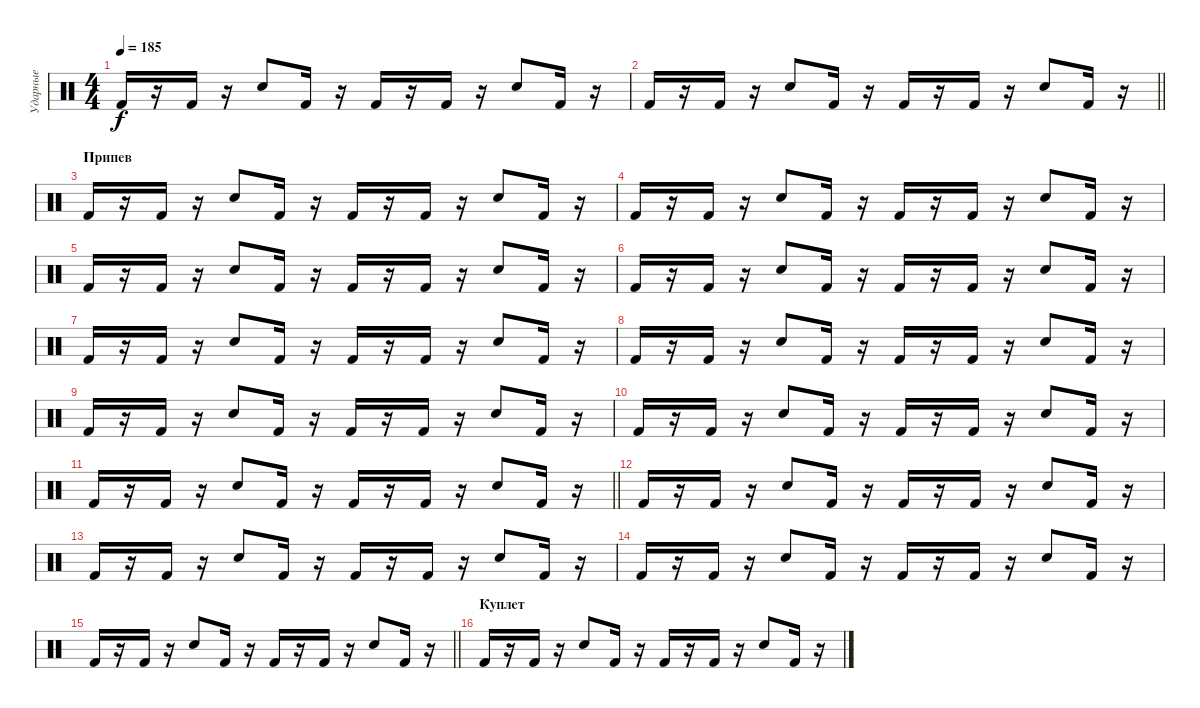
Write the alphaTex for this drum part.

\track ("Ударные" "Ударные") {instrument percussion}
\staff {score}
\articulation defaults
\ts (4 4)
\tempo 185
\clef neutral
\ks c "Kick (hit) 2".16{dy f}
r.16 "Kick (hit) 2".16 r.16 "Electric Snare (hit)".8 "Kick (hit) 2".16 r.16 "Kick (hit) 2".16 r.16 "Kick (hit) 2".16 r.16 "Electric Snare (hit)".8 "Kick (hit) 2".16 r.16 |
\barLineRight lightlight "Kick (hit) 2".16
r.16 "Kick (hit) 2".16 r.16 "Electric Snare (hit)".8 "Kick (hit) 2".16 r.16 "Kick (hit) 2".16 r.16 "Kick (hit) 2".16 r.16 "Electric Snare (hit)".8 "Kick (hit) 2".16 r.16 |
\section ("" "Припев")
"Kick (hit) 2".16 r.16 "Kick (hit) 2".16 r.16 "Electric Snare (hit)".8 "Kick (hit) 2".16 r.16 "Kick (hit) 2".16 r.16 "Kick (hit) 2".16 r.16 "Electric Snare (hit)".8 "Kick (hit) 2".16 r.16 |
"Kick (hit) 2".16 r.16 "Kick (hit) 2".16 r.16 "Electric Snare (hit)".8 "Kick (hit) 2".16 r.16 "Kick (hit) 2".16 r.16 "Kick (hit) 2".16 r.16 "Electric Snare (hit)".8 "Kick (hit) 2".16 r.16 |
"Kick (hit) 2".16 r.16 "Kick (hit) 2".16 r.16 "Electric Snare (hit)".8 "Kick (hit) 2".16 r.16 "Kick (hit) 2".16 r.16 "Kick (hit) 2".16 r.16 "Electric Snare (hit)".8 "Kick (hit) 2".16 r.16 |
"Kick (hit) 2".16 r.16 "Kick (hit) 2".16 r.16 "Electric Snare (hit)".8 "Kick (hit) 2".16 r.16 "Kick (hit) 2".16 r.16 "Kick (hit) 2".16 r.16 "Electric Snare (hit)".8 "Kick (hit) 2".16 r.16 |
"Kick (hit) 2".16 r.16 "Kick (hit) 2".16 r.16 "Electric Snare (hit)".8 "Kick (hit) 2".16 r.16 "Kick (hit) 2".16 r.16 "Kick (hit) 2".16 r.16 "Electric Snare (hit)".8 "Kick (hit) 2".16 r.16 |
"Kick (hit) 2".16 r.16 "Kick (hit) 2".16 r.16 "Electric Snare (hit)".8 "Kick (hit) 2".16 r.16 "Kick (hit) 2".16 r.16 "Kick (hit) 2".16 r.16 "Electric Snare (hit)".8 "Kick (hit) 2".16 r.16 |
"Kick (hit) 2".16 r.16 "Kick (hit) 2".16 r.16 "Electric Snare (hit)".8 "Kick (hit) 2".16 r.16 "Kick (hit) 2".16 r.16 "Kick (hit) 2".16 r.16 "Electric Snare (hit)".8 "Kick (hit) 2".16 r.16 |
"Kick (hit) 2".16 r.16 "Kick (hit) 2".16 r.16 "Electric Snare (hit)".8 "Kick (hit) 2".16 r.16 "Kick (hit) 2".16 r.16 "Kick (hit) 2".16 r.16 "Electric Snare (hit)".8 "Kick (hit) 2".16 r.16 |
\barLineRight lightlight "Kick (hit) 2".16
r.16 "Kick (hit) 2".16 r.16 "Electric Snare (hit)".8 "Kick (hit) 2".16 r.16 "Kick (hit) 2".16 r.16 "Kick (hit) 2".16 r.16 "Electric Snare (hit)".8 "Kick (hit) 2".16 r.16 |
"Kick (hit) 2".16 r.16 "Kick (hit) 2".16 r.16 "Electric Snare (hit)".8 "Kick (hit) 2".16 r.16 "Kick (hit) 2".16 r.16 "Kick (hit) 2".16 r.16 "Electric Snare (hit)".8 "Kick (hit) 2".16 r.16 |
"Kick (hit) 2".16 r.16 "Kick (hit) 2".16 r.16 "Electric Snare (hit)".8 "Kick (hit) 2".16 r.16 "Kick (hit) 2".16 r.16 "Kick (hit) 2".16 r.16 "Electric Snare (hit)".8 "Kick (hit) 2".16 r.16 |
"Kick (hit) 2".16 r.16 "Kick (hit) 2".16 r.16 "Electric Snare (hit)".8 "Kick (hit) 2".16 r.16 "Kick (hit) 2".16 r.16 "Kick (hit) 2".16 r.16 "Electric Snare (hit)".8 "Kick (hit) 2".16 r.16 |
\barLineRight lightlight "Kick (hit) 2".16
r.16 "Kick (hit) 2".16 r.16 "Electric Snare (hit)".8 "Kick (hit) 2".16 r.16 "Kick (hit) 2".16 r.16 "Kick (hit) 2".16 r.16 "Electric Snare (hit)".8 "Kick (hit) 2".16 r.16 |
\section ("" "Куплет")
"Kick (hit) 2".16 r.16 "Kick (hit) 2".16 r.16 "Electric Snare (hit)".8 "Kick (hit) 2".16 r.16 "Kick (hit) 2".16 r.16 "Kick (hit) 2".16 r.16 "Electric Snare (hit)".8 "Kick (hit) 2".16 r.16
